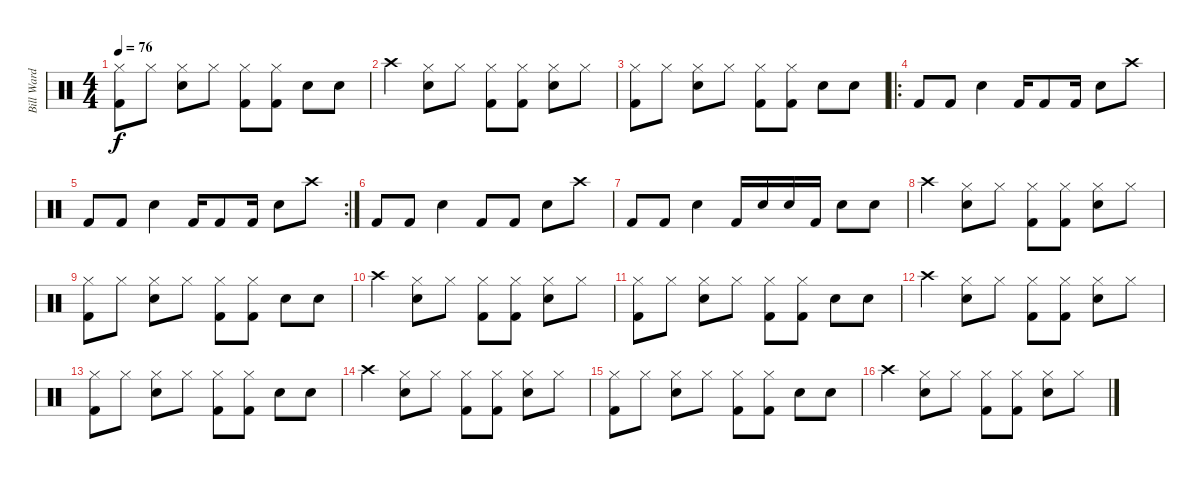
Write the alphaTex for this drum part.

\track ("Bill Ward" "Bill Ward") {instrument percussion}
\staff {score}
\articulation defaults
\ts (4 4)
\tempo 76
\clef neutral
\ks c
("Kick (hit) 2" "Hi-Hat (closed)").8{dy f} "Hi-Hat (closed)".8 ("Snare (hit) 2" "Hi-Hat (closed)").8 "Hi-Hat (closed)".8 ("Kick (hit) 2" "Hi-Hat (closed)").8 ("Kick (hit) 2" "Hi-Hat (closed)").8 "Snare (hit) 2".8 "Snare (hit) 2".8 |
"Crash high (hit)".4 ("Snare (hit) 2" "Hi-Hat (closed)").8 "Hi-Hat (closed)".8 ("Kick (hit) 2" "Hi-Hat (closed)").8 ("Kick (hit) 2" "Hi-Hat (closed)").8 ("Snare (hit) 2" "Hi-Hat (closed)").8 "Hi-Hat (closed)".8 |
("Kick (hit) 2" "Hi-Hat (closed)").8 "Hi-Hat (closed)".8 ("Snare (hit) 2" "Hi-Hat (closed)").8 "Hi-Hat (closed)".8 ("Kick (hit) 2" "Hi-Hat (closed)").8 ("Kick (hit) 2" "Hi-Hat (closed)").8 "Snare (hit) 2".8 "Snare (hit) 2".8 |
\ro "Kick (hit) 2".8 "Kick (hit) 2".8 "Snare (hit) 2".4 "Kick (hit) 2".16 "Kick (hit) 2".8 "Kick (hit) 2".16 "Snare (hit) 2".8 "Crash high (hit)".8
|
\rc 2 "Kick (hit) 2".8 "Kick (hit) 2".8 "Snare (hit) 2".4 "Kick (hit) 2".16 "Kick (hit) 2".8 "Kick (hit) 2".16 "Snare (hit) 2".8 "Crash high (hit)".8
|
"Kick (hit) 2".8 "Kick (hit) 2".8 "Snare (hit) 2".4 "Kick (hit) 2".8 "Kick (hit) 2".8 "Snare (hit) 2".8 "Crash high (hit)".8 |
"Kick (hit) 2".8 "Kick (hit) 2".8 "Snare (hit) 2".4 "Kick (hit) 2".16 "Snare (hit) 2".16 "Snare (hit) 2".16 "Kick (hit) 2".16 "Snare (hit) 2".8 "Snare (hit) 2".8 |
"Crash high (hit)".4 ("Snare (hit) 2" "Hi-Hat (closed)").8 "Hi-Hat (closed)".8 ("Kick (hit) 2" "Hi-Hat (closed)").8 ("Kick (hit) 2" "Hi-Hat (closed)").8 ("Snare (hit) 2" "Hi-Hat (closed)").8 "Hi-Hat (closed)".8 |
("Kick (hit) 2" "Hi-Hat (closed)").8 "Hi-Hat (closed)".8 ("Snare (hit) 2" "Hi-Hat (closed)").8 "Hi-Hat (closed)".8 ("Kick (hit) 2" "Hi-Hat (closed)").8 ("Kick (hit) 2" "Hi-Hat (closed)").8 "Snare (hit) 2".8 "Snare (hit) 2".8 |
"Crash high (hit)".4 ("Snare (hit) 2" "Hi-Hat (closed)").8 "Hi-Hat (closed)".8 ("Kick (hit) 2" "Hi-Hat (closed)").8 ("Kick (hit) 2" "Hi-Hat (closed)").8 ("Snare (hit) 2" "Hi-Hat (closed)").8 "Hi-Hat (closed)".8 |
("Kick (hit) 2" "Hi-Hat (closed)").8 "Hi-Hat (closed)".8 ("Snare (hit) 2" "Hi-Hat (closed)").8 "Hi-Hat (closed)".8 ("Kick (hit) 2" "Hi-Hat (closed)").8 ("Kick (hit) 2" "Hi-Hat (closed)").8 "Snare (hit) 2".8 "Snare (hit) 2".8 |
"Crash high (hit)".4 ("Snare (hit) 2" "Hi-Hat (closed)").8 "Hi-Hat (closed)".8 ("Kick (hit) 2" "Hi-Hat (closed)").8 ("Kick (hit) 2" "Hi-Hat (closed)").8 ("Snare (hit) 2" "Hi-Hat (closed)").8 "Hi-Hat (closed)".8 |
("Kick (hit) 2" "Hi-Hat (closed)").8 "Hi-Hat (closed)".8 ("Snare (hit) 2" "Hi-Hat (closed)").8 "Hi-Hat (closed)".8 ("Kick (hit) 2" "Hi-Hat (closed)").8 ("Kick (hit) 2" "Hi-Hat (closed)").8 "Snare (hit) 2".8 "Snare (hit) 2".8 |
"Crash high (hit)".4 ("Snare (hit) 2" "Hi-Hat (closed)").8 "Hi-Hat (closed)".8 ("Kick (hit) 2" "Hi-Hat (closed)").8 ("Kick (hit) 2" "Hi-Hat (closed)").8 ("Snare (hit) 2" "Hi-Hat (closed)").8 "Hi-Hat (closed)".8 |
("Kick (hit) 2" "Hi-Hat (closed)").8 "Hi-Hat (closed)".8 ("Snare (hit) 2" "Hi-Hat (closed)").8 "Hi-Hat (closed)".8 ("Kick (hit) 2" "Hi-Hat (closed)").8 ("Kick (hit) 2" "Hi-Hat (closed)").8 "Snare (hit) 2".8 "Snare (hit) 2".8 |
"Crash high (hit)".4 ("Snare (hit) 2" "Hi-Hat (closed)").8 "Hi-Hat (closed)".8 ("Kick (hit) 2" "Hi-Hat (closed)").8 ("Kick (hit) 2" "Hi-Hat (closed)").8 ("Snare (hit) 2" "Hi-Hat (closed)").8 "Hi-Hat (closed)".8
